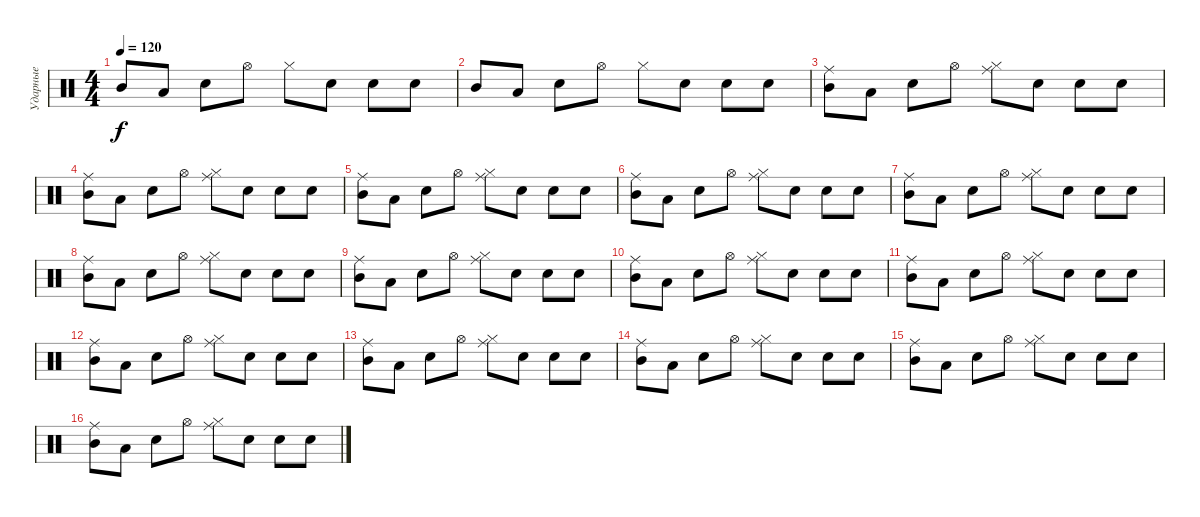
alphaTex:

\track ("Ударные" "Ударные") {instrument percussion}
\staff {score}
\articulation defaults
\ts (4 4)
\tempo 120
\clef neutral
\ks c "Mid Tom (hit)".8{dy f} "Low Tom (hit)".8 "Electric Snare (hit)".8 "Hi-Hat (open)".8 "Hi-Hat (closed)".8 "Snare (hit)".8 "Electric Snare (hit)".8 "Snare (hit)".8
|
"Mid Tom (hit)".8 "Low Tom (hit)".8 "Electric Snare (hit)".8 "Hi-Hat (open)".8 "Hi-Hat (closed)".8 "Snare (hit)".8 "Electric Snare (hit)".8 "Snare (hit)".8 |
("Ride (middle)" "Mid Tom (hit)").8 "Low Tom (hit)".8 "Electric Snare (hit)".8 "Hi-Hat (open)".8 ("Ride (middle)" "Hi-Hat (closed)").8 "Snare (hit)".8 "Electric Snare (hit)".8 "Snare (hit)".8 |
("Ride (middle)" "Mid Tom (hit)").8 "Low Tom (hit)".8 "Electric Snare (hit)".8 "Hi-Hat (open)".8 ("Ride (middle)" "Hi-Hat (closed)").8 "Snare (hit)".8 "Electric Snare (hit)".8 "Snare (hit)".8 |
("Ride (middle)" "Mid Tom (hit)").8 "Low Tom (hit)".8 "Electric Snare (hit)".8 "Hi-Hat (open)".8 ("Ride (middle)" "Hi-Hat (closed)").8 "Snare (hit)".8 "Electric Snare (hit)".8 "Snare (hit)".8 |
("Ride (middle)" "Mid Tom (hit)").8 "Low Tom (hit)".8 "Electric Snare (hit)".8 "Hi-Hat (open)".8 ("Ride (middle)" "Hi-Hat (closed)").8 "Snare (hit)".8 "Electric Snare (hit)".8 "Snare (hit)".8 |
("Ride (middle)" "Mid Tom (hit)").8 "Low Tom (hit)".8 "Electric Snare (hit)".8 "Hi-Hat (open)".8 ("Ride (middle)" "Hi-Hat (closed)").8 "Snare (hit)".8 "Electric Snare (hit)".8 "Snare (hit)".8 |
("Ride (middle)" "Mid Tom (hit)").8 "Low Tom (hit)".8 "Electric Snare (hit)".8 "Hi-Hat (open)".8 ("Ride (middle)" "Hi-Hat (closed)").8 "Snare (hit)".8 "Electric Snare (hit)".8 "Snare (hit)".8 |
("Ride (middle)" "Mid Tom (hit)").8 "Low Tom (hit)".8 "Electric Snare (hit)".8 "Hi-Hat (open)".8 ("Ride (middle)" "Hi-Hat (closed)").8 "Snare (hit)".8 "Electric Snare (hit)".8 "Snare (hit)".8 |
("Ride (middle)" "Mid Tom (hit)").8 "Low Tom (hit)".8 "Electric Snare (hit)".8 "Hi-Hat (open)".8 ("Ride (middle)" "Hi-Hat (closed)").8 "Snare (hit)".8 "Electric Snare (hit)".8 "Snare (hit)".8 |
("Ride (middle)" "Mid Tom (hit)").8 "Low Tom (hit)".8 "Electric Snare (hit)".8 "Hi-Hat (open)".8 ("Ride (middle)" "Hi-Hat (closed)").8 "Snare (hit)".8 "Electric Snare (hit)".8 "Snare (hit)".8 |
("Ride (middle)" "Mid Tom (hit)").8 "Low Tom (hit)".8 "Electric Snare (hit)".8 "Hi-Hat (open)".8 ("Ride (middle)" "Hi-Hat (closed)").8 "Snare (hit)".8 "Electric Snare (hit)".8 "Snare (hit)".8 |
("Ride (middle)" "Mid Tom (hit)").8 "Low Tom (hit)".8 "Electric Snare (hit)".8 "Hi-Hat (open)".8 ("Ride (middle)" "Hi-Hat (closed)").8 "Snare (hit)".8 "Electric Snare (hit)".8 "Snare (hit)".8 |
("Ride (middle)" "Mid Tom (hit)").8 "Low Tom (hit)".8 "Electric Snare (hit)".8 "Hi-Hat (open)".8 ("Ride (middle)" "Hi-Hat (closed)").8 "Snare (hit)".8 "Electric Snare (hit)".8 "Snare (hit)".8 |
("Ride (middle)" "Mid Tom (hit)").8 "Low Tom (hit)".8 "Electric Snare (hit)".8 "Hi-Hat (open)".8 ("Ride (middle)" "Hi-Hat (closed)").8 "Snare (hit)".8 "Electric Snare (hit)".8 "Snare (hit)".8 |
("Ride (middle)" "Mid Tom (hit)").8 "Low Tom (hit)".8 "Electric Snare (hit)".8 "Hi-Hat (open)".8 ("Ride (middle)" "Hi-Hat (closed)").8 "Snare (hit)".8 "Electric Snare (hit)".8 "Snare (hit)".8
